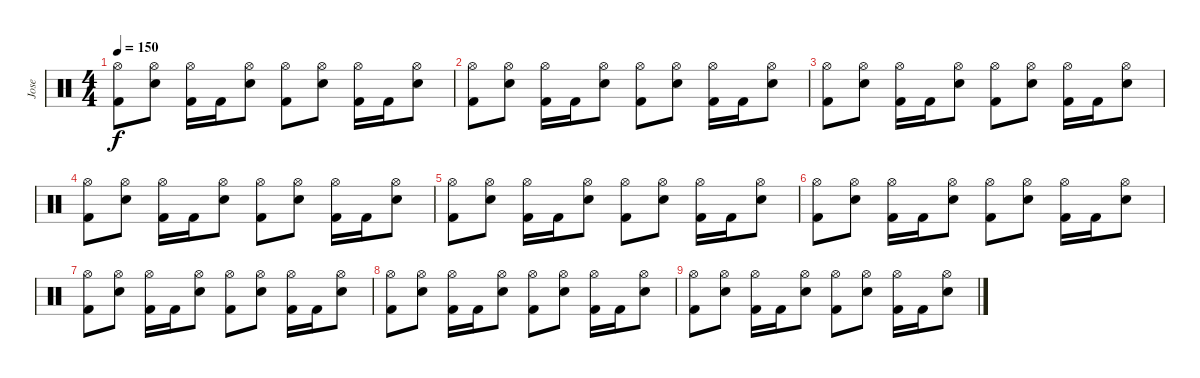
\track ("Jose" "Jose") {instrument percussion}
\staff {score}
\articulation defaults
\ts (4 4)
\tempo 150
\clef neutral
\ks c
("Hi-Hat (open)" "Kick (hit) 2").8{dy f} ("Hi-Hat (open)" "Snare (hit) 2").8 ("Hi-Hat (open)" "Kick (hit) 2").16 "Kick (hit) 2".16 ("Hi-Hat (open)" "Snare (hit) 2").8 ("Hi-Hat (open)" "Kick (hit) 2").8 ("Hi-Hat (open)" "Snare (hit) 2").8 ("Hi-Hat (open)" "Kick (hit) 2").16 "Kick (hit) 2".16 ("Hi-Hat (open)" "Snare (hit) 2").8 |
("Hi-Hat (open)" "Kick (hit) 2").8 ("Hi-Hat (open)" "Snare (hit) 2").8 ("Hi-Hat (open)" "Kick (hit) 2").16 "Kick (hit) 2".16 ("Hi-Hat (open)" "Snare (hit) 2").8 ("Hi-Hat (open)" "Kick (hit) 2").8 ("Hi-Hat (open)" "Snare (hit) 2").8 ("Hi-Hat (open)" "Kick (hit) 2").16 "Kick (hit) 2".16 ("Hi-Hat (open)" "Snare (hit) 2").8 |
("Hi-Hat (open)" "Kick (hit) 2").8 ("Hi-Hat (open)" "Snare (hit) 2").8 ("Hi-Hat (open)" "Kick (hit) 2").16 "Kick (hit) 2".16 ("Hi-Hat (open)" "Snare (hit) 2").8 ("Hi-Hat (open)" "Kick (hit) 2").8 ("Hi-Hat (open)" "Snare (hit) 2").8 ("Hi-Hat (open)" "Kick (hit) 2").16 "Kick (hit) 2".16 ("Hi-Hat (open)" "Snare (hit) 2").8 |
("Hi-Hat (open)" "Kick (hit) 2").8 ("Hi-Hat (open)" "Snare (hit) 2").8 ("Hi-Hat (open)" "Kick (hit) 2").16 "Kick (hit) 2".16 ("Hi-Hat (open)" "Snare (hit) 2").8 ("Hi-Hat (open)" "Kick (hit) 2").8 ("Hi-Hat (open)" "Snare (hit) 2").8 ("Hi-Hat (open)" "Kick (hit) 2").16 "Kick (hit) 2".16 ("Hi-Hat (open)" "Snare (hit) 2").8 |
("Hi-Hat (open)" "Kick (hit) 2").8 ("Hi-Hat (open)" "Snare (hit) 2").8 ("Hi-Hat (open)" "Kick (hit) 2").16 "Kick (hit) 2".16 ("Hi-Hat (open)" "Snare (hit) 2").8 ("Hi-Hat (open)" "Kick (hit) 2").8 ("Hi-Hat (open)" "Snare (hit) 2").8 ("Hi-Hat (open)" "Kick (hit) 2").16 "Kick (hit) 2".16 ("Hi-Hat (open)" "Snare (hit) 2").8 |
("Hi-Hat (open)" "Kick (hit) 2").8 ("Hi-Hat (open)" "Snare (hit) 2").8 ("Hi-Hat (open)" "Kick (hit) 2").16 "Kick (hit) 2".16 ("Hi-Hat (open)" "Snare (hit) 2").8 ("Hi-Hat (open)" "Kick (hit) 2").8 ("Hi-Hat (open)" "Snare (hit) 2").8 ("Hi-Hat (open)" "Kick (hit) 2").16 "Kick (hit) 2".16 ("Hi-Hat (open)" "Snare (hit) 2").8 |
("Hi-Hat (open)" "Kick (hit) 2").8 ("Hi-Hat (open)" "Snare (hit) 2").8 ("Hi-Hat (open)" "Kick (hit) 2").16 "Kick (hit) 2".16 ("Hi-Hat (open)" "Snare (hit) 2").8 ("Hi-Hat (open)" "Kick (hit) 2").8 ("Hi-Hat (open)" "Snare (hit) 2").8 ("Hi-Hat (open)" "Kick (hit) 2").16 "Kick (hit) 2".16 ("Hi-Hat (open)" "Snare (hit) 2").8 |
("Hi-Hat (open)" "Kick (hit) 2").8 ("Hi-Hat (open)" "Snare (hit) 2").8 ("Hi-Hat (open)" "Kick (hit) 2").16 "Kick (hit) 2".16 ("Hi-Hat (open)" "Snare (hit) 2").8 ("Hi-Hat (open)" "Kick (hit) 2").8 ("Hi-Hat (open)" "Snare (hit) 2").8 ("Hi-Hat (open)" "Kick (hit) 2").16 "Kick (hit) 2".16 ("Hi-Hat (open)" "Snare (hit) 2").8 |
("Hi-Hat (open)" "Kick (hit) 2").8 ("Hi-Hat (open)" "Snare (hit) 2").8 ("Hi-Hat (open)" "Kick (hit) 2").16 "Kick (hit) 2".16 ("Hi-Hat (open)" "Snare (hit) 2").8 ("Hi-Hat (open)" "Kick (hit) 2").8 ("Hi-Hat (open)" "Snare (hit) 2").8 ("Hi-Hat (open)" "Kick (hit) 2").16 "Kick (hit) 2".16 ("Hi-Hat (open)" "Snare (hit) 2").8
